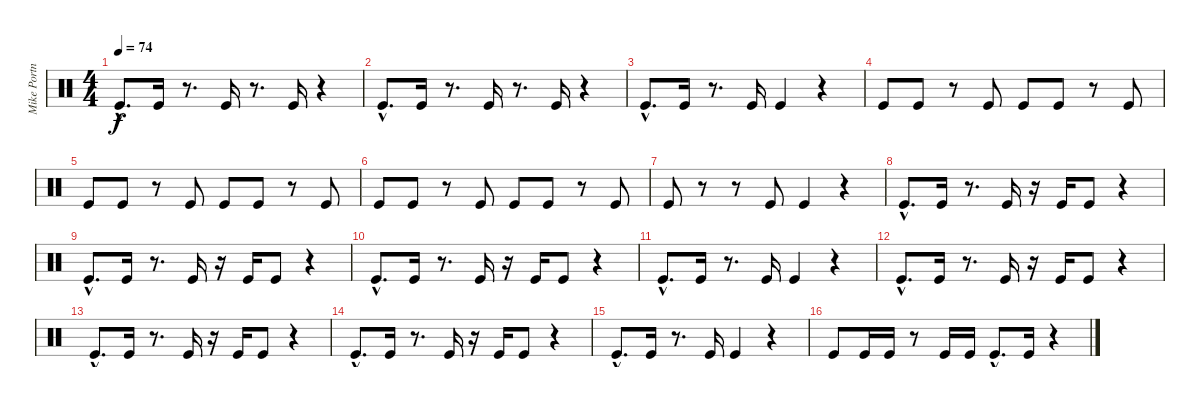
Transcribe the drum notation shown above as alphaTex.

\track ("Mike Portnoy" "Mike Portn") {instrument percussion}
\staff {score}
\articulation defaults
\ts (4 4)
\tempo 74
\clef neutral
\ks c "Kick (hit)"{hac}.8{d dy f} "Kick (hit)".16
r.8{d} "Kick (hit)".16 r.8{d} "Kick (hit)".16 r.4 |
"Kick (hit)"{hac}.8{d} "Kick (hit)".16 r.8{d} "Kick (hit)".16 r.8{d} "Kick (hit)".16 r.4 |
"Kick (hit)"{hac}.8{d} "Kick (hit)".16 r.8{d} "Kick (hit)".16 "Kick (hit)".4 r.4 |
"Kick (hit)".8 "Kick (hit)".8 r.8 "Kick (hit)".8 "Kick (hit)".8 "Kick (hit)".8 r.8 "Kick (hit)".8 |
"Kick (hit)".8 "Kick (hit)".8 r.8 "Kick (hit)".8 "Kick (hit)".8 "Kick (hit)".8 r.8 "Kick (hit)".8 |
"Kick (hit)".8 "Kick (hit)".8 r.8 "Kick (hit)".8 "Kick (hit)".8 "Kick (hit)".8 r.8 "Kick (hit)".8 |
"Kick (hit)".8 r.8 r.8 "Kick (hit)".8 "Kick (hit)".4 r.4 |
"Kick (hit)"{hac}.8{d} "Kick (hit)".16 r.8{d} "Kick (hit)".16 r.16 "Kick (hit)".16 "Kick (hit)".8 r.4 |
"Kick (hit)"{hac}.8{d} "Kick (hit)".16 r.8{d} "Kick (hit)".16 r.16 "Kick (hit)".16 "Kick (hit)".8 r.4 |
"Kick (hit)"{hac}.8{d} "Kick (hit)".16 r.8{d} "Kick (hit)".16 r.16 "Kick (hit)".16 "Kick (hit)".8 r.4 |
"Kick (hit)"{hac}.8{d} "Kick (hit)".16 r.8{d} "Kick (hit)".16 "Kick (hit)".4 r.4 |
"Kick (hit)"{hac}.8{d} "Kick (hit)".16 r.8{d} "Kick (hit)".16 r.16 "Kick (hit)".16 "Kick (hit)".8 r.4 |
"Kick (hit)"{hac}.8{d} "Kick (hit)".16 r.8{d} "Kick (hit)".16 r.16 "Kick (hit)".16 "Kick (hit)".8 r.4 |
"Kick (hit)"{hac}.8{d} "Kick (hit)".16 r.8{d} "Kick (hit)".16 r.16 "Kick (hit)".16 "Kick (hit)".8 r.4 |
"Kick (hit)"{hac}.8{d} "Kick (hit)".16 r.8{d} "Kick (hit)".16 "Kick (hit)".4 r.4 |
"Kick (hit)".8 "Kick (hit)".16 "Kick (hit)".16 r.8 "Kick (hit)".16 "Kick (hit)".16 "Kick (hit)"{hac}.8{d} "Kick (hit)".16 r.4
